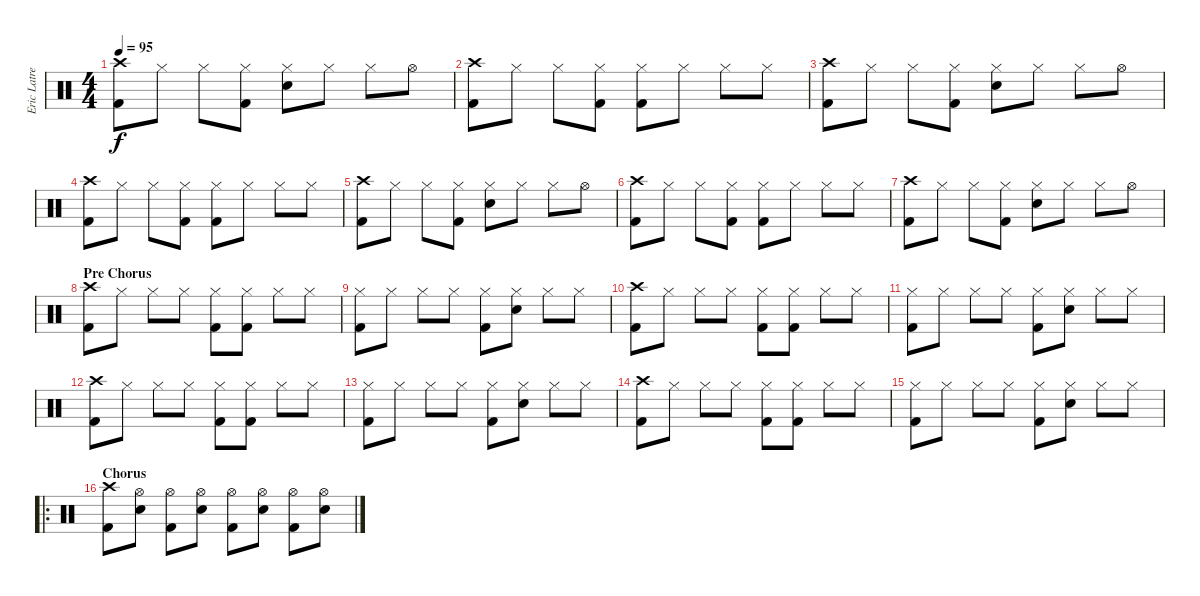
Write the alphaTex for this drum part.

\track ("Eric Latreille" "Eric Latre") {instrument percussion}
\staff {score}
\articulation defaults
\ts (4 4)
\tempo 95
\clef neutral
\ks c
("Crash high (hit)" "Kick (hit) 2").8{dy f} "Hi-Hat (closed)".8 "Hi-Hat (closed)".8 ("Hi-Hat (closed)" "Kick (hit) 2").8 ("Hi-Hat (closed)" "Snare (hit) 2").8 "Hi-Hat (closed)".8 "Hi-Hat (closed)".8 "Hi-Hat (open)".8 |
("Crash high (hit)" "Kick (hit) 2").8 "Hi-Hat (closed)".8 "Hi-Hat (closed)".8 ("Hi-Hat (closed)" "Kick (hit) 2").8 ("Hi-Hat (closed)" "Kick (hit) 2").8 "Hi-Hat (closed)".8 "Hi-Hat (closed)".8 "Hi-Hat (closed)".8 |
("Crash high (hit)" "Kick (hit) 2").8 "Hi-Hat (closed)".8 "Hi-Hat (closed)".8 ("Hi-Hat (closed)" "Kick (hit) 2").8 ("Hi-Hat (closed)" "Snare (hit) 2").8 "Hi-Hat (closed)".8 "Hi-Hat (closed)".8 "Hi-Hat (open)".8 |
("Crash high (hit)" "Kick (hit) 2").8 "Hi-Hat (closed)".8 "Hi-Hat (closed)".8 ("Hi-Hat (closed)" "Kick (hit) 2").8 ("Hi-Hat (closed)" "Kick (hit) 2").8 "Hi-Hat (closed)".8 "Hi-Hat (closed)".8 "Hi-Hat (closed)".8 |
("Crash high (hit)" "Kick (hit) 2").8 "Hi-Hat (closed)".8 "Hi-Hat (closed)".8 ("Hi-Hat (closed)" "Kick (hit) 2").8 ("Hi-Hat (closed)" "Snare (hit) 2").8 "Hi-Hat (closed)".8 "Hi-Hat (closed)".8 "Hi-Hat (open)".8 |
("Crash high (hit)" "Kick (hit) 2").8 "Hi-Hat (closed)".8 "Hi-Hat (closed)".8 ("Hi-Hat (closed)" "Kick (hit) 2").8 ("Hi-Hat (closed)" "Kick (hit) 2").8 "Hi-Hat (closed)".8 "Hi-Hat (closed)".8 "Hi-Hat (closed)".8 |
("Crash high (hit)" "Kick (hit) 2").8 "Hi-Hat (closed)".8 "Hi-Hat (closed)".8 ("Hi-Hat (closed)" "Kick (hit) 2").8 ("Hi-Hat (closed)" "Snare (hit) 2").8 "Hi-Hat (closed)".8 "Hi-Hat (closed)".8 "Hi-Hat (open)".8 |
\section ("" "Pre Chorus")
("Crash high (hit)" "Kick (hit) 2").8 "Hi-Hat (closed)".8 "Hi-Hat (closed)".8 "Hi-Hat (closed)".8 ("Hi-Hat (closed)" "Kick (hit) 2").8 ("Hi-Hat (closed)" "Kick (hit) 2").8 "Hi-Hat (closed)".8 "Hi-Hat (closed)".8 |
("Hi-Hat (closed)" "Kick (hit) 2").8 "Hi-Hat (closed)".8 "Hi-Hat (closed)".8 "Hi-Hat (closed)".8 ("Hi-Hat (closed)" "Kick (hit) 2").8 ("Hi-Hat (closed)" "Snare (hit) 2").8 "Hi-Hat (closed)".8 "Hi-Hat (closed)".8 |
("Crash high (hit)" "Kick (hit) 2").8 "Hi-Hat (closed)".8 "Hi-Hat (closed)".8 "Hi-Hat (closed)".8 ("Hi-Hat (closed)" "Kick (hit) 2").8 ("Hi-Hat (closed)" "Kick (hit) 2").8 "Hi-Hat (closed)".8 "Hi-Hat (closed)".8 |
("Hi-Hat (closed)" "Kick (hit) 2").8 "Hi-Hat (closed)".8 "Hi-Hat (closed)".8 "Hi-Hat (closed)".8 ("Hi-Hat (closed)" "Kick (hit) 2").8 ("Hi-Hat (closed)" "Snare (hit) 2").8 "Hi-Hat (closed)".8 "Hi-Hat (closed)".8 |
("Crash high (hit)" "Kick (hit) 2").8 "Hi-Hat (closed)".8 "Hi-Hat (closed)".8 "Hi-Hat (closed)".8 ("Hi-Hat (closed)" "Kick (hit) 2").8 ("Hi-Hat (closed)" "Kick (hit) 2").8 "Hi-Hat (closed)".8 "Hi-Hat (closed)".8 |
("Hi-Hat (closed)" "Kick (hit) 2").8 "Hi-Hat (closed)".8 "Hi-Hat (closed)".8 "Hi-Hat (closed)".8 ("Hi-Hat (closed)" "Kick (hit) 2").8 ("Hi-Hat (closed)" "Snare (hit) 2").8 "Hi-Hat (closed)".8 "Hi-Hat (closed)".8 |
("Crash high (hit)" "Kick (hit) 2").8 "Hi-Hat (closed)".8 "Hi-Hat (closed)".8 "Hi-Hat (closed)".8 ("Hi-Hat (closed)" "Kick (hit) 2").8 ("Hi-Hat (closed)" "Kick (hit) 2").8 "Hi-Hat (closed)".8 "Hi-Hat (closed)".8 |
("Hi-Hat (closed)" "Kick (hit) 2").8 "Hi-Hat (closed)".8 "Hi-Hat (closed)".8 "Hi-Hat (closed)".8 ("Hi-Hat (closed)" "Kick (hit) 2").8 ("Hi-Hat (closed)" "Snare (hit) 2").8 "Hi-Hat (closed)".8 "Hi-Hat (closed)".8 |
\ro
\section ("" "Chorus")
("Crash high (hit)" "Kick (hit) 2").8 ("Hi-Hat (open)" "Snare (hit) 2").8 ("Hi-Hat (open)" "Kick (hit) 2").8 ("Hi-Hat (open)" "Snare (hit) 2").8 ("Hi-Hat (open)" "Kick (hit) 2").8 ("Hi-Hat (open)" "Snare (hit) 2").8 ("Hi-Hat (open)" "Kick (hit) 2").8 ("Hi-Hat (open)" "Snare (hit) 2").8
